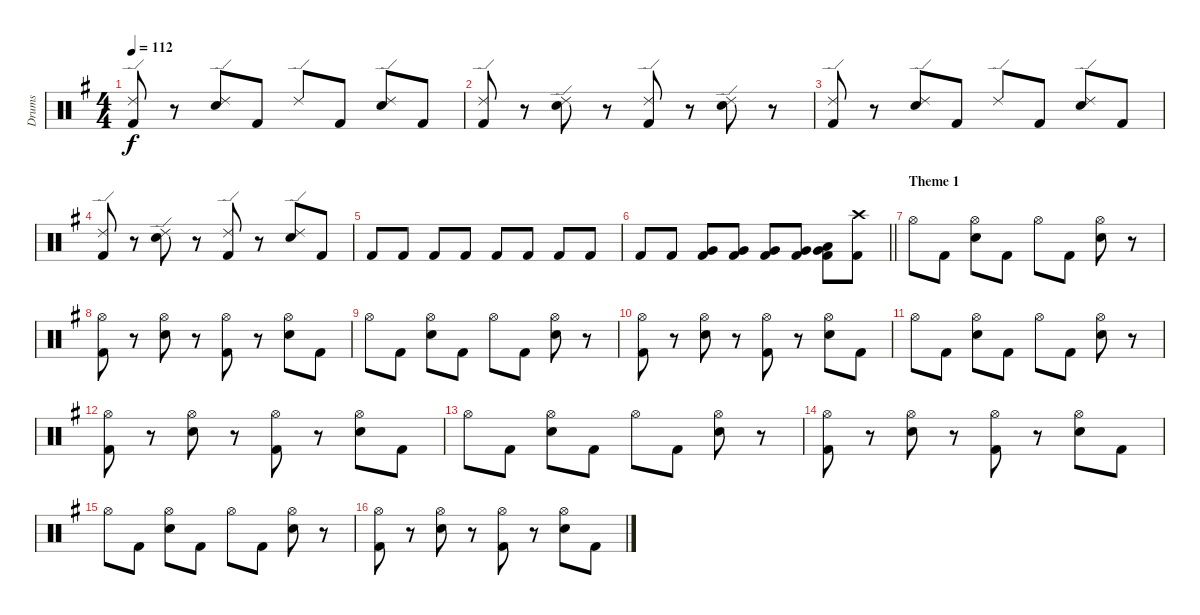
\track ("Drums" "Drums") {instrument percussion}
\staff {score}
\articulation defaults
\ts (4 4)
\tempo 112
\clef neutral
\ks eminor
("Ride (edge) 2" "Kick (hit) 2").8{dy f} r.8 ("Ride (edge) 2" "Electric Snare (hit)").8 "Kick (hit) 2".8 "Ride (edge) 2".8 "Kick (hit) 2".8 ("Ride (edge) 2" "Electric Snare (hit)").8 "Kick (hit) 2".8 |
("Ride (edge) 2" "Kick (hit) 2").8 r.8 ("Ride (edge) 2" "Electric Snare (hit)").8 r.8 ("Ride (edge) 2" "Kick (hit) 2").8 r.8 ("Ride (edge) 2" "Electric Snare (hit)").8 r.8 |
("Ride (edge) 2" "Kick (hit) 2").8 r.8 ("Ride (edge) 2" "Electric Snare (hit)").8 "Kick (hit) 2".8 "Ride (edge) 2".8 "Kick (hit) 2".8 ("Ride (edge) 2" "Electric Snare (hit)").8 "Kick (hit) 2".8 |
("Ride (edge) 2" "Kick (hit) 2").8 r.8 ("Ride (edge) 2" "Electric Snare (hit)").8 r.8 ("Ride (edge) 2" "Kick (hit) 2").8 r.8 ("Ride (edge) 2" "Electric Snare (hit)").8 "Kick (hit) 2".8 |
"Kick (hit) 2".8 "Kick (hit) 2".8 "Kick (hit) 2".8 "Kick (hit) 2".8 "Kick (hit) 2".8 "Kick (hit) 2".8 "Kick (hit) 2".8 "Kick (hit) 2".8 |
\barLineRight lightlight "Kick (hit) 2".8 "Kick (hit) 2".8
("Very Low Tom (hit)" "Kick (hit) 2").8 ("Very Low Tom (hit)" "Kick (hit) 2").8 ("Very Low Tom (hit)" "Kick (hit) 2").8 ("Very Low Tom (hit)" "Kick (hit) 2").8 ("Very Low Tom (hit)" "Low Floor Tom (hit)" "Kick (hit) 2").8 ("Crash high (hit)" "Kick (hit) 2").8 |
\section ("" "Theme 1")
"Hi-Hat (open)".8 "Kick (hit) 2".8 ("Hi-Hat (open)" "Electric Snare (hit)").8 "Kick (hit) 2".8 "Hi-Hat (open)".8 "Kick (hit) 2".8 ("Hi-Hat (open)" "Electric Snare (hit)").8 r.8 |
("Hi-Hat (open)" "Kick (hit) 2").8 r.8 ("Hi-Hat (open)" "Electric Snare (hit)").8 r.8 ("Hi-Hat (open)" "Kick (hit) 2").8 r.8 ("Hi-Hat (open)" "Electric Snare (hit)").8 "Kick (hit) 2".8 |
"Hi-Hat (open)".8 "Kick (hit) 2".8 ("Hi-Hat (open)" "Electric Snare (hit)").8 "Kick (hit) 2".8 "Hi-Hat (open)".8 "Kick (hit) 2".8 ("Hi-Hat (open)" "Electric Snare (hit)").8 r.8 |
("Hi-Hat (open)" "Kick (hit) 2").8 r.8 ("Hi-Hat (open)" "Electric Snare (hit)").8 r.8 ("Hi-Hat (open)" "Kick (hit) 2").8 r.8 ("Hi-Hat (open)" "Electric Snare (hit)").8 "Kick (hit) 2".8 |
"Hi-Hat (open)".8 "Kick (hit) 2".8 ("Hi-Hat (open)" "Electric Snare (hit)").8 "Kick (hit) 2".8 "Hi-Hat (open)".8 "Kick (hit) 2".8 ("Hi-Hat (open)" "Electric Snare (hit)").8 r.8 |
("Hi-Hat (open)" "Kick (hit) 2").8 r.8 ("Hi-Hat (open)" "Electric Snare (hit)").8 r.8 ("Hi-Hat (open)" "Kick (hit) 2").8 r.8 ("Hi-Hat (open)" "Electric Snare (hit)").8 "Kick (hit) 2".8 |
"Hi-Hat (open)".8 "Kick (hit) 2".8 ("Hi-Hat (open)" "Electric Snare (hit)").8 "Kick (hit) 2".8 "Hi-Hat (open)".8 "Kick (hit) 2".8 ("Hi-Hat (open)" "Electric Snare (hit)").8 r.8 |
("Hi-Hat (open)" "Kick (hit) 2").8 r.8 ("Hi-Hat (open)" "Electric Snare (hit)").8 r.8 ("Hi-Hat (open)" "Kick (hit) 2").8 r.8 ("Hi-Hat (open)" "Electric Snare (hit)").8 "Kick (hit) 2".8 |
"Hi-Hat (open)".8 "Kick (hit) 2".8 ("Hi-Hat (open)" "Electric Snare (hit)").8 "Kick (hit) 2".8 "Hi-Hat (open)".8 "Kick (hit) 2".8 ("Hi-Hat (open)" "Electric Snare (hit)").8 r.8 |
("Hi-Hat (open)" "Kick (hit) 2").8 r.8 ("Hi-Hat (open)" "Electric Snare (hit)").8 r.8 ("Hi-Hat (open)" "Kick (hit) 2").8 r.8 ("Hi-Hat (open)" "Electric Snare (hit)").8 "Kick (hit) 2".8
